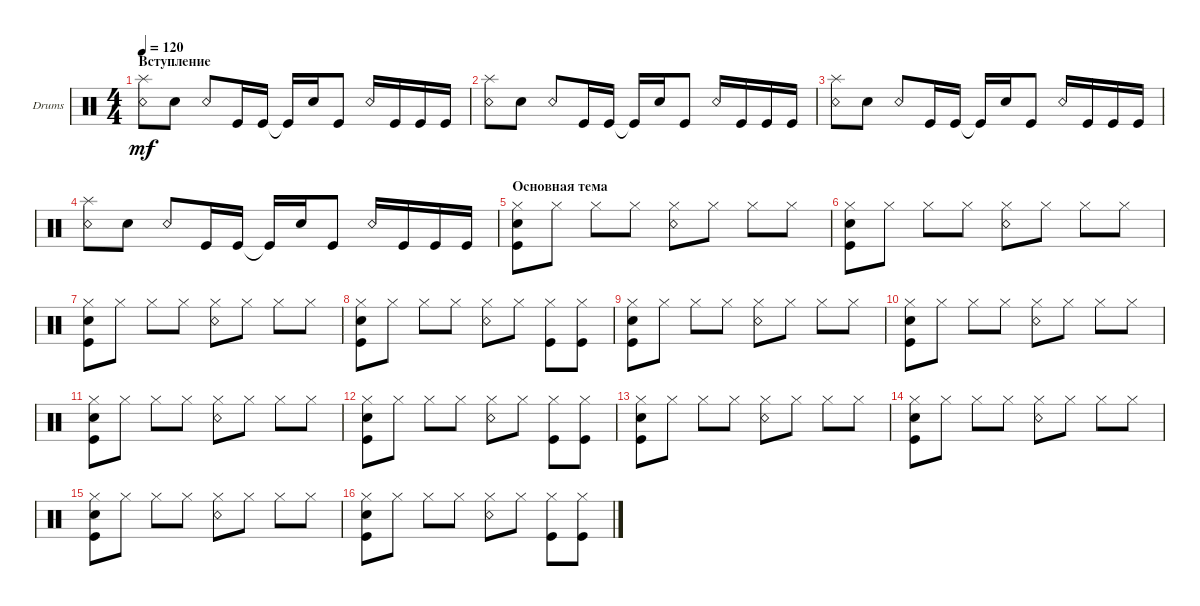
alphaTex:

\bracketExtendMode groupsimilarinstruments
\firstSystemTrackNameOrientation horizontal
\otherSystemsTrackNameOrientation horizontal
\track ("БАРАБАНЫ" "Drums") {instrument percussion}
\staff {score}
\articulation defaults
\ts (4 4)
\section ("" "Вступление")
\tempo 120
\clef neutral
\ks c
("Snare (rim shot)" "Splash (hit)").8{dy mf} "Snare (hit) 2".8 "Snare (rim shot)".8 "Kick (hit)".16 "Kick (hit)".16 "Kick (hit)"{t}.16 "Snare (hit) 2".16 "Kick (hit)".8 "Snare (rim shot)".16 "Kick (hit)".16 "Kick (hit)".16 "Kick (hit)".16 |
("Snare (rim shot)" "Splash (hit)").8 "Snare (hit) 2".8 "Snare (rim shot)".8 "Kick (hit)".16 "Kick (hit)".16 "Kick (hit)"{t}.16 "Snare (hit) 2".16 "Kick (hit)".8 "Snare (rim shot)".16 "Kick (hit)".16 "Kick (hit)".16 "Kick (hit)".16 |
("Snare (rim shot)" "Splash (hit)").8 "Snare (hit) 2".8 "Snare (rim shot)".8 "Kick (hit)".16 "Kick (hit)".16 "Kick (hit)"{t}.16 "Snare (hit) 2".16 "Kick (hit)".8 "Snare (rim shot)".16 "Kick (hit)".16 "Kick (hit)".16 "Kick (hit)".16 |
("Snare (rim shot)" "Splash (hit)").8 "Snare (hit) 2".8 "Snare (rim shot)".8 "Kick (hit)".16 "Kick (hit)".16 "Kick (hit)"{t}.16 "Snare (hit) 2".16 "Kick (hit)".8 "Snare (rim shot)".16 "Kick (hit)".16 "Kick (hit)".16 "Kick (hit)".16 |
\section ("" "Основная тема")
("Snare (hit) 2" "Hi-Hat (closed)" "Kick (hit)").8 "Hi-Hat (closed)".8 "Hi-Hat (closed)".8 "Hi-Hat (closed)".8 ("Hi-Hat (closed)" "Snare (rim shot)").8 "Hi-Hat (closed)".8 "Hi-Hat (closed)".8 "Hi-Hat (closed)".8 |
("Snare (hit) 2" "Hi-Hat (closed)" "Kick (hit)").8 "Hi-Hat (closed)".8 "Hi-Hat (closed)".8 "Hi-Hat (closed)".8 ("Hi-Hat (closed)" "Snare (rim shot)").8 "Hi-Hat (closed)".8 "Hi-Hat (closed)".8 "Hi-Hat (closed)".8 |
("Snare (hit) 2" "Hi-Hat (closed)" "Kick (hit)").8 "Hi-Hat (closed)".8 "Hi-Hat (closed)".8 "Hi-Hat (closed)".8 ("Hi-Hat (closed)" "Snare (rim shot)").8 "Hi-Hat (closed)".8 "Hi-Hat (closed)".8 "Hi-Hat (closed)".8 |
("Snare (hit) 2" "Hi-Hat (closed)" "Kick (hit)").8 "Hi-Hat (closed)".8 "Hi-Hat (closed)".8 "Hi-Hat (closed)".8 ("Hi-Hat (closed)" "Snare (rim shot)").8 "Hi-Hat (closed)".8 ("Hi-Hat (closed)" "Kick (hit)").8 ("Hi-Hat (closed)" "Kick (hit)").8 |
("Snare (hit) 2" "Hi-Hat (closed)" "Kick (hit)").8 "Hi-Hat (closed)".8 "Hi-Hat (closed)".8 "Hi-Hat (closed)".8 ("Hi-Hat (closed)" "Snare (rim shot)").8 "Hi-Hat (closed)".8 "Hi-Hat (closed)".8 "Hi-Hat (closed)".8 |
("Snare (hit) 2" "Hi-Hat (closed)" "Kick (hit)").8 "Hi-Hat (closed)".8 "Hi-Hat (closed)".8 "Hi-Hat (closed)".8 ("Hi-Hat (closed)" "Snare (rim shot)").8 "Hi-Hat (closed)".8 "Hi-Hat (closed)".8 "Hi-Hat (closed)".8 |
("Snare (hit) 2" "Hi-Hat (closed)" "Kick (hit)").8 "Hi-Hat (closed)".8 "Hi-Hat (closed)".8 "Hi-Hat (closed)".8 ("Hi-Hat (closed)" "Snare (rim shot)").8 "Hi-Hat (closed)".8 "Hi-Hat (closed)".8 "Hi-Hat (closed)".8 |
("Snare (hit) 2" "Hi-Hat (closed)" "Kick (hit)").8 "Hi-Hat (closed)".8 "Hi-Hat (closed)".8 "Hi-Hat (closed)".8 ("Hi-Hat (closed)" "Snare (rim shot)").8 "Hi-Hat (closed)".8 ("Hi-Hat (closed)" "Kick (hit)").8 ("Hi-Hat (closed)" "Kick (hit)").8 |
("Snare (hit) 2" "Hi-Hat (closed)" "Kick (hit)").8 "Hi-Hat (closed)".8 "Hi-Hat (closed)".8 "Hi-Hat (closed)".8 ("Hi-Hat (closed)" "Snare (rim shot)").8 "Hi-Hat (closed)".8 "Hi-Hat (closed)".8 "Hi-Hat (closed)".8 |
("Snare (hit) 2" "Hi-Hat (closed)" "Kick (hit)").8 "Hi-Hat (closed)".8 "Hi-Hat (closed)".8 "Hi-Hat (closed)".8 ("Hi-Hat (closed)" "Snare (rim shot)").8 "Hi-Hat (closed)".8 "Hi-Hat (closed)".8 "Hi-Hat (closed)".8 |
("Snare (hit) 2" "Hi-Hat (closed)" "Kick (hit)").8 "Hi-Hat (closed)".8 "Hi-Hat (closed)".8 "Hi-Hat (closed)".8 ("Hi-Hat (closed)" "Snare (rim shot)").8 "Hi-Hat (closed)".8 "Hi-Hat (closed)".8 "Hi-Hat (closed)".8 |
("Snare (hit) 2" "Hi-Hat (closed)" "Kick (hit)").8 "Hi-Hat (closed)".8 "Hi-Hat (closed)".8 "Hi-Hat (closed)".8 ("Hi-Hat (closed)" "Snare (rim shot)").8 "Hi-Hat (closed)".8 ("Hi-Hat (closed)" "Kick (hit)").8 ("Hi-Hat (closed)" "Kick (hit)").8
